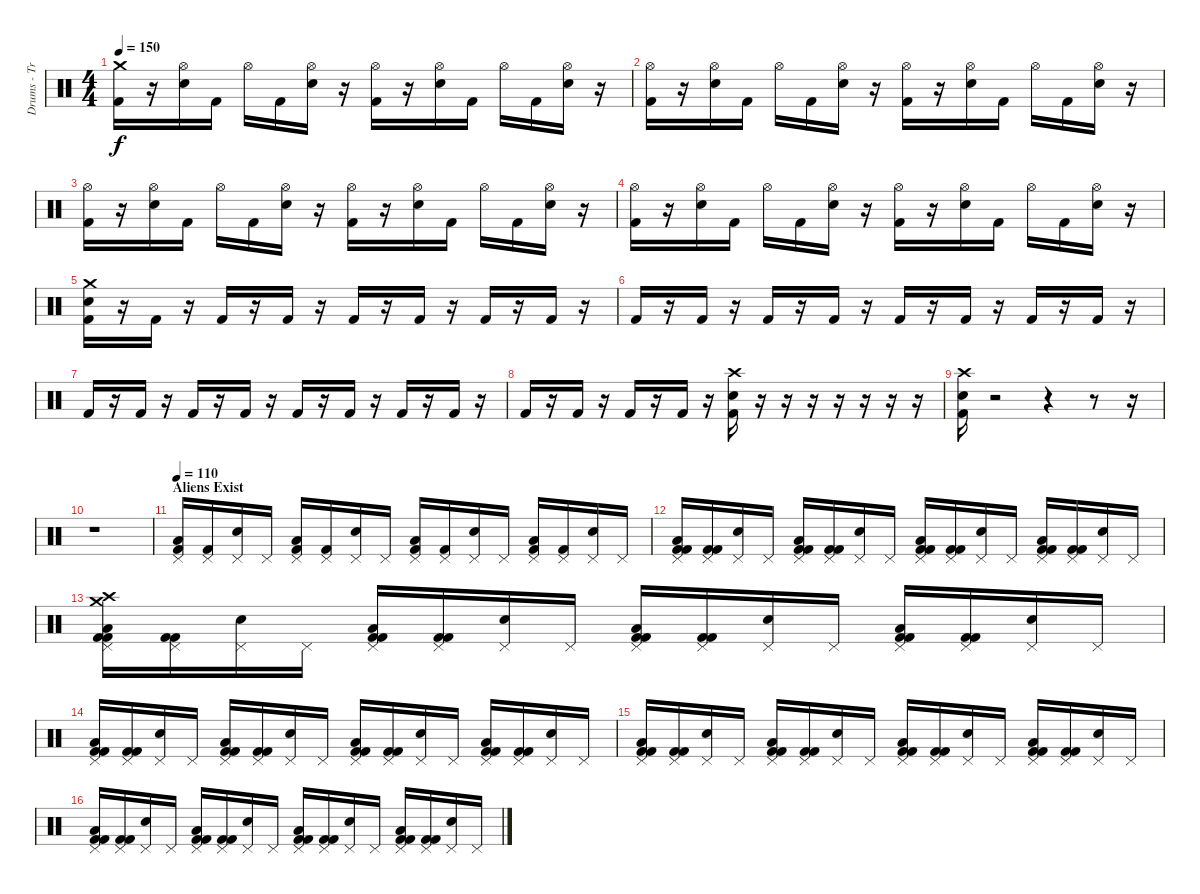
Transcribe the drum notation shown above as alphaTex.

\track ("Drums - Travis Barker" "Drums - Tr") {instrument percussion}
\staff {score}
\articulation defaults
\ts (4 4)
\tempo 150
\clef neutral
\ks c
("Crash medium (hit)" "Kick (hit) 2").16{dy f} r.16 ("Hi-Hat (open)" "Electric Snare (hit)").16 "Kick (hit) 2".16 "Hi-Hat (open)".16 "Kick (hit) 2".16 ("Hi-Hat (open)" "Electric Snare (hit)").16 r.16 ("Hi-Hat (open)" "Kick (hit) 2").16 r.16 ("Hi-Hat (open)" "Electric Snare (hit)").16 "Kick (hit) 2".16 "Hi-Hat (open)".16 "Kick (hit) 2".16 ("Hi-Hat (open)" "Electric Snare (hit)").16 r.16 |
("Hi-Hat (open)" "Kick (hit) 2").16 r.16 ("Hi-Hat (open)" "Electric Snare (hit)").16 "Kick (hit) 2".16 "Hi-Hat (open)".16 "Kick (hit) 2".16 ("Hi-Hat (open)" "Electric Snare (hit)").16 r.16 ("Hi-Hat (open)" "Kick (hit) 2").16 r.16 ("Hi-Hat (open)" "Electric Snare (hit)").16 "Kick (hit) 2".16 "Hi-Hat (open)".16 "Kick (hit) 2".16 ("Hi-Hat (open)" "Electric Snare (hit)").16 r.16 |
("Hi-Hat (open)" "Kick (hit) 2").16 r.16 ("Hi-Hat (open)" "Electric Snare (hit)").16 "Kick (hit) 2".16 "Hi-Hat (open)".16 "Kick (hit) 2".16 ("Hi-Hat (open)" "Electric Snare (hit)").16 r.16 ("Hi-Hat (open)" "Kick (hit) 2").16 r.16 ("Hi-Hat (open)" "Electric Snare (hit)").16 "Kick (hit) 2".16 "Hi-Hat (open)".16 "Kick (hit) 2".16 ("Hi-Hat (open)" "Electric Snare (hit)").16 r.16 |
("Hi-Hat (open)" "Kick (hit) 2").16 r.16 ("Hi-Hat (open)" "Electric Snare (hit)").16 "Kick (hit) 2".16 "Hi-Hat (open)".16 "Kick (hit) 2".16 ("Hi-Hat (open)" "Electric Snare (hit)").16 r.16 ("Hi-Hat (open)" "Kick (hit) 2").16 r.16 ("Hi-Hat (open)" "Electric Snare (hit)").16 "Kick (hit) 2".16 "Hi-Hat (open)".16 "Kick (hit) 2".16 ("Hi-Hat (open)" "Electric Snare (hit)").16 r.16 |
("Crash medium (hit)" "Electric Snare (hit)" "Kick (hit) 2").16 r.16 "Kick (hit) 2".16 r.16 "Kick (hit) 2".16 r.16 "Kick (hit) 2".16 r.16 "Kick (hit) 2".16 r.16 "Kick (hit) 2".16 r.16 "Kick (hit) 2".16 r.16 "Kick (hit) 2".16 r.16 |
"Kick (hit) 2".16 r.16 "Kick (hit) 2".16 r.16 "Kick (hit) 2".16 r.16 "Kick (hit) 2".16 r.16 "Kick (hit) 2".16 r.16 "Kick (hit) 2".16 r.16 "Kick (hit) 2".16 r.16 "Kick (hit) 2".16 r.16 |
"Kick (hit) 2".16 r.16 "Kick (hit) 2".16 r.16 "Kick (hit) 2".16 r.16 "Kick (hit) 2".16 r.16 "Kick (hit) 2".16 r.16 "Kick (hit) 2".16 r.16 "Kick (hit) 2".16 r.16 "Kick (hit) 2".16 r.16 |
"Kick (hit) 2".16 r.16 "Kick (hit) 2".16 r.16 "Kick (hit) 2".16 r.16 "Kick (hit) 2".16 r.16 ("Crash high (hit)" "Electric Snare (hit)" "Kick (hit) 2").16 r.16 r.16 r.16 r.16 r.16 r.16 r.16 |
("Crash high (hit)" "Electric Snare (hit)" "Kick (hit) 2").16 r.2 r.4 r.8 r.16 |
r.1 |
\section ("" "Aliens Exist")
\tempo 110
("Pedal Hi-Hat (hit)" "Low Tom (hit)" "Kick (hit) 2").16 ("Pedal Hi-Hat (hit)" "Kick (hit) 2").16 ("Pedal Hi-Hat (hit)" "Electric Snare (hit)").16 "Pedal Hi-Hat (hit)".16 ("Pedal Hi-Hat (hit)" "Low Tom (hit)" "Kick (hit) 2").16 ("Pedal Hi-Hat (hit)" "Kick (hit) 2").16 ("Pedal Hi-Hat (hit)" "Electric Snare (hit)").16 "Pedal Hi-Hat (hit)".16 ("Pedal Hi-Hat (hit)" "Low Tom (hit)" "Kick (hit) 2").16 ("Pedal Hi-Hat (hit)" "Kick (hit) 2").16 ("Pedal Hi-Hat (hit)" "Electric Snare (hit)").16 "Pedal Hi-Hat (hit)".16 ("Pedal Hi-Hat (hit)" "Low Tom (hit)" "Kick (hit) 2").16 ("Pedal Hi-Hat (hit)" "Kick (hit) 2").16 ("Pedal Hi-Hat (hit)" "Electric Snare (hit)").16 "Pedal Hi-Hat (hit)".16 |
("Pedal Hi-Hat (hit)" "Low Tom (hit)" "Kick (hit) 2" "Kick (hit) 2").16 ("Pedal Hi-Hat (hit)" "Kick (hit) 2" "Kick (hit) 2").16 ("Pedal Hi-Hat (hit)" "Electric Snare (hit)").16 "Pedal Hi-Hat (hit)".16 ("Pedal Hi-Hat (hit)" "Low Tom (hit)" "Kick (hit) 2" "Kick (hit) 2").16 ("Pedal Hi-Hat (hit)" "Kick (hit) 2" "Kick (hit) 2").16 ("Pedal Hi-Hat (hit)" "Electric Snare (hit)").16 "Pedal Hi-Hat (hit)".16 ("Pedal Hi-Hat (hit)" "Low Tom (hit)" "Kick (hit) 2" "Kick (hit) 2").16 ("Pedal Hi-Hat (hit)" "Kick (hit) 2" "Kick (hit) 2").16 ("Pedal Hi-Hat (hit)" "Electric Snare (hit)").16 "Pedal Hi-Hat (hit)".16 ("Pedal Hi-Hat (hit)" "Low Tom (hit)" "Kick (hit) 2" "Kick (hit) 2").16 ("Pedal Hi-Hat (hit)" "Kick (hit) 2" "Kick (hit) 2").16 ("Pedal Hi-Hat (hit)" "Electric Snare (hit)").16 "Pedal Hi-Hat (hit)".16 |
("Pedal Hi-Hat (hit)" "Crash high (hit)" "Low Tom (hit)" "Crash medium (hit)" "Kick (hit) 2" "Kick (hit) 2").16 ("Pedal Hi-Hat (hit)" "Kick (hit) 2" "Kick (hit) 2").16 ("Pedal Hi-Hat (hit)" "Electric Snare (hit)").16 "Pedal Hi-Hat (hit)".16 ("Pedal Hi-Hat (hit)" "Low Tom (hit)" "Kick (hit) 2" "Kick (hit) 2").16 ("Pedal Hi-Hat (hit)" "Kick (hit) 2" "Kick (hit) 2").16 ("Pedal Hi-Hat (hit)" "Electric Snare (hit)").16 "Pedal Hi-Hat (hit)".16 ("Pedal Hi-Hat (hit)" "Low Tom (hit)" "Kick (hit) 2" "Kick (hit) 2").16 ("Pedal Hi-Hat (hit)" "Kick (hit) 2" "Kick (hit) 2").16 ("Pedal Hi-Hat (hit)" "Electric Snare (hit)").16 "Pedal Hi-Hat (hit)".16 ("Pedal Hi-Hat (hit)" "Low Tom (hit)" "Kick (hit) 2" "Kick (hit) 2").16 ("Pedal Hi-Hat (hit)" "Kick (hit) 2" "Kick (hit) 2").16 ("Pedal Hi-Hat (hit)" "Electric Snare (hit)").16 "Pedal Hi-Hat (hit)".16 |
("Pedal Hi-Hat (hit)" "Low Tom (hit)" "Kick (hit) 2" "Kick (hit) 2").16 ("Pedal Hi-Hat (hit)" "Kick (hit) 2" "Kick (hit) 2").16 ("Pedal Hi-Hat (hit)" "Electric Snare (hit)").16 "Pedal Hi-Hat (hit)".16 ("Pedal Hi-Hat (hit)" "Low Tom (hit)" "Kick (hit) 2" "Kick (hit) 2").16 ("Pedal Hi-Hat (hit)" "Kick (hit) 2" "Kick (hit) 2").16 ("Pedal Hi-Hat (hit)" "Electric Snare (hit)").16 "Pedal Hi-Hat (hit)".16 ("Pedal Hi-Hat (hit)" "Low Tom (hit)" "Kick (hit) 2" "Kick (hit) 2").16 ("Pedal Hi-Hat (hit)" "Kick (hit) 2" "Kick (hit) 2").16 ("Pedal Hi-Hat (hit)" "Electric Snare (hit)").16 "Pedal Hi-Hat (hit)".16 ("Pedal Hi-Hat (hit)" "Low Tom (hit)" "Kick (hit) 2" "Kick (hit) 2").16 ("Pedal Hi-Hat (hit)" "Kick (hit) 2" "Kick (hit) 2").16 ("Pedal Hi-Hat (hit)" "Electric Snare (hit)").16 "Pedal Hi-Hat (hit)".16 |
("Pedal Hi-Hat (hit)" "Low Tom (hit)" "Kick (hit) 2" "Kick (hit) 2").16 ("Pedal Hi-Hat (hit)" "Kick (hit) 2" "Kick (hit) 2").16 ("Pedal Hi-Hat (hit)" "Electric Snare (hit)").16 "Pedal Hi-Hat (hit)".16 ("Pedal Hi-Hat (hit)" "Low Tom (hit)" "Kick (hit) 2" "Kick (hit) 2").16 ("Pedal Hi-Hat (hit)" "Kick (hit) 2" "Kick (hit) 2").16 ("Pedal Hi-Hat (hit)" "Electric Snare (hit)").16 "Pedal Hi-Hat (hit)".16 ("Pedal Hi-Hat (hit)" "Low Tom (hit)" "Kick (hit) 2" "Kick (hit) 2").16 ("Pedal Hi-Hat (hit)" "Kick (hit) 2" "Kick (hit) 2").16 ("Pedal Hi-Hat (hit)" "Electric Snare (hit)").16 "Pedal Hi-Hat (hit)".16 ("Pedal Hi-Hat (hit)" "Low Tom (hit)" "Kick (hit) 2" "Kick (hit) 2").16 ("Pedal Hi-Hat (hit)" "Kick (hit) 2" "Kick (hit) 2").16 ("Pedal Hi-Hat (hit)" "Electric Snare (hit)").16 "Pedal Hi-Hat (hit)".16 |
("Pedal Hi-Hat (hit)" "Low Tom (hit)" "Kick (hit) 2" "Kick (hit) 2").16 ("Pedal Hi-Hat (hit)" "Kick (hit) 2" "Kick (hit) 2").16 ("Pedal Hi-Hat (hit)" "Electric Snare (hit)").16 "Pedal Hi-Hat (hit)".16 ("Pedal Hi-Hat (hit)" "Low Tom (hit)" "Kick (hit) 2" "Kick (hit) 2").16 ("Pedal Hi-Hat (hit)" "Kick (hit) 2" "Kick (hit) 2").16 ("Pedal Hi-Hat (hit)" "Electric Snare (hit)").16 "Pedal Hi-Hat (hit)".16 ("Pedal Hi-Hat (hit)" "Low Tom (hit)" "Kick (hit) 2" "Kick (hit) 2").16 ("Pedal Hi-Hat (hit)" "Kick (hit) 2" "Kick (hit) 2").16 ("Pedal Hi-Hat (hit)" "Electric Snare (hit)").16 "Pedal Hi-Hat (hit)".16 ("Pedal Hi-Hat (hit)" "Low Tom (hit)" "Kick (hit) 2" "Kick (hit) 2").16 ("Pedal Hi-Hat (hit)" "Kick (hit) 2" "Kick (hit) 2").16 ("Pedal Hi-Hat (hit)" "Electric Snare (hit)").16 "Pedal Hi-Hat (hit)".16
